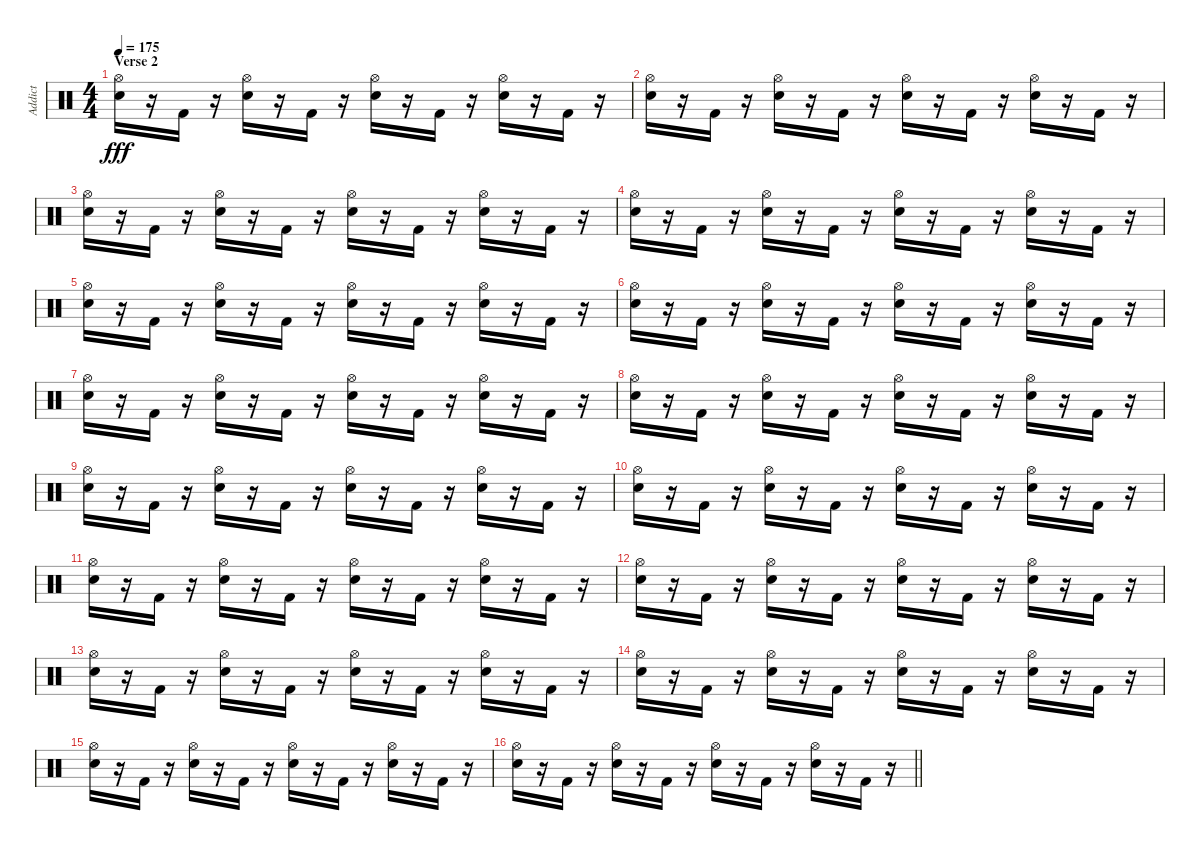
\track ("Addict" "Addict") {instrument percussion}
\staff {score}
\articulation defaults
\ts (4 4)
\section ("" "Verse 2")
\tempo 175
\clef neutral
\ks c
("Snare (hit) 2" "Hi-Hat (open)").16{dy fff} r.16 "Kick (hit) 2".16 r.16 ("Snare (hit) 2" "Hi-Hat (open)").16 r.16 "Kick (hit) 2".16 r.16 ("Snare (hit) 2" "Hi-Hat (open)").16 r.16 "Kick (hit) 2".16 r.16 ("Snare (hit) 2" "Hi-Hat (open)").16 r.16 "Kick (hit) 2".16 r.16 |
("Snare (hit) 2" "Hi-Hat (open)").16 r.16 "Kick (hit) 2".16 r.16 ("Snare (hit) 2" "Hi-Hat (open)").16 r.16 "Kick (hit) 2".16 r.16 ("Snare (hit) 2" "Hi-Hat (open)").16 r.16 "Kick (hit) 2".16 r.16 ("Snare (hit) 2" "Hi-Hat (open)").16 r.16 "Kick (hit) 2".16 r.16 |
("Snare (hit) 2" "Hi-Hat (open)").16 r.16 "Kick (hit) 2".16 r.16 ("Snare (hit) 2" "Hi-Hat (open)").16 r.16 "Kick (hit) 2".16 r.16 ("Snare (hit) 2" "Hi-Hat (open)").16 r.16 "Kick (hit) 2".16 r.16 ("Snare (hit) 2" "Hi-Hat (open)").16 r.16 "Kick (hit) 2".16 r.16 |
("Snare (hit) 2" "Hi-Hat (open)").16 r.16 "Kick (hit) 2".16 r.16 ("Snare (hit) 2" "Hi-Hat (open)").16 r.16 "Kick (hit) 2".16 r.16 ("Snare (hit) 2" "Hi-Hat (open)").16 r.16 "Kick (hit) 2".16 r.16 ("Snare (hit) 2" "Hi-Hat (open)").16 r.16 "Kick (hit) 2".16 r.16 |
("Snare (hit) 2" "Hi-Hat (open)").16 r.16 "Kick (hit) 2".16 r.16 ("Snare (hit) 2" "Hi-Hat (open)").16 r.16 "Kick (hit) 2".16 r.16 ("Snare (hit) 2" "Hi-Hat (open)").16 r.16 "Kick (hit) 2".16 r.16 ("Snare (hit) 2" "Hi-Hat (open)").16 r.16 "Kick (hit) 2".16 r.16 |
("Snare (hit) 2" "Hi-Hat (open)").16 r.16 "Kick (hit) 2".16 r.16 ("Snare (hit) 2" "Hi-Hat (open)").16 r.16 "Kick (hit) 2".16 r.16 ("Snare (hit) 2" "Hi-Hat (open)").16 r.16 "Kick (hit) 2".16 r.16 ("Snare (hit) 2" "Hi-Hat (open)").16 r.16 "Kick (hit) 2".16 r.16 |
("Snare (hit) 2" "Hi-Hat (open)").16 r.16 "Kick (hit) 2".16 r.16 ("Snare (hit) 2" "Hi-Hat (open)").16 r.16 "Kick (hit) 2".16 r.16 ("Snare (hit) 2" "Hi-Hat (open)").16 r.16 "Kick (hit) 2".16 r.16 ("Snare (hit) 2" "Hi-Hat (open)").16 r.16 "Kick (hit) 2".16 r.16 |
("Snare (hit) 2" "Hi-Hat (open)").16 r.16 "Kick (hit) 2".16 r.16 ("Snare (hit) 2" "Hi-Hat (open)").16 r.16 "Kick (hit) 2".16 r.16 ("Snare (hit) 2" "Hi-Hat (open)").16 r.16 "Kick (hit) 2".16 r.16 ("Snare (hit) 2" "Hi-Hat (open)").16 r.16 "Kick (hit) 2".16 r.16 |
("Snare (hit) 2" "Hi-Hat (open)").16 r.16 "Kick (hit) 2".16 r.16 ("Snare (hit) 2" "Hi-Hat (open)").16 r.16 "Kick (hit) 2".16 r.16 ("Snare (hit) 2" "Hi-Hat (open)").16 r.16 "Kick (hit) 2".16 r.16 ("Snare (hit) 2" "Hi-Hat (open)").16 r.16 "Kick (hit) 2".16 r.16 |
("Snare (hit) 2" "Hi-Hat (open)").16 r.16 "Kick (hit) 2".16 r.16 ("Snare (hit) 2" "Hi-Hat (open)").16 r.16 "Kick (hit) 2".16 r.16 ("Snare (hit) 2" "Hi-Hat (open)").16 r.16 "Kick (hit) 2".16 r.16 ("Snare (hit) 2" "Hi-Hat (open)").16 r.16 "Kick (hit) 2".16 r.16 |
("Snare (hit) 2" "Hi-Hat (open)").16 r.16 "Kick (hit) 2".16 r.16 ("Snare (hit) 2" "Hi-Hat (open)").16 r.16 "Kick (hit) 2".16 r.16 ("Snare (hit) 2" "Hi-Hat (open)").16 r.16 "Kick (hit) 2".16 r.16 ("Snare (hit) 2" "Hi-Hat (open)").16 r.16 "Kick (hit) 2".16 r.16 |
("Snare (hit) 2" "Hi-Hat (open)").16 r.16 "Kick (hit) 2".16 r.16 ("Snare (hit) 2" "Hi-Hat (open)").16 r.16 "Kick (hit) 2".16 r.16 ("Snare (hit) 2" "Hi-Hat (open)").16 r.16 "Kick (hit) 2".16 r.16 ("Snare (hit) 2" "Hi-Hat (open)").16 r.16 "Kick (hit) 2".16 r.16 |
("Snare (hit) 2" "Hi-Hat (open)").16 r.16 "Kick (hit) 2".16 r.16 ("Snare (hit) 2" "Hi-Hat (open)").16 r.16 "Kick (hit) 2".16 r.16 ("Snare (hit) 2" "Hi-Hat (open)").16 r.16 "Kick (hit) 2".16 r.16 ("Snare (hit) 2" "Hi-Hat (open)").16 r.16 "Kick (hit) 2".16 r.16 |
("Snare (hit) 2" "Hi-Hat (open)").16 r.16 "Kick (hit) 2".16 r.16 ("Snare (hit) 2" "Hi-Hat (open)").16 r.16 "Kick (hit) 2".16 r.16 ("Snare (hit) 2" "Hi-Hat (open)").16 r.16 "Kick (hit) 2".16 r.16 ("Snare (hit) 2" "Hi-Hat (open)").16 r.16 "Kick (hit) 2".16 r.16 |
("Snare (hit) 2" "Hi-Hat (open)").16 r.16 "Kick (hit) 2".16 r.16 ("Snare (hit) 2" "Hi-Hat (open)").16 r.16 "Kick (hit) 2".16 r.16 ("Snare (hit) 2" "Hi-Hat (open)").16 r.16 "Kick (hit) 2".16 r.16 ("Snare (hit) 2" "Hi-Hat (open)").16 r.16 "Kick (hit) 2".16 r.16 |
\barLineRight lightlight
("Snare (hit) 2" "Hi-Hat (open)").16 r.16 "Kick (hit) 2".16 r.16 ("Snare (hit) 2" "Hi-Hat (open)").16 r.16 "Kick (hit) 2".16 r.16 ("Snare (hit) 2" "Hi-Hat (open)").16 r.16 "Kick (hit) 2".16 r.16 ("Snare (hit) 2" "Hi-Hat (open)").16 r.16 "Kick (hit) 2".16 r.16
